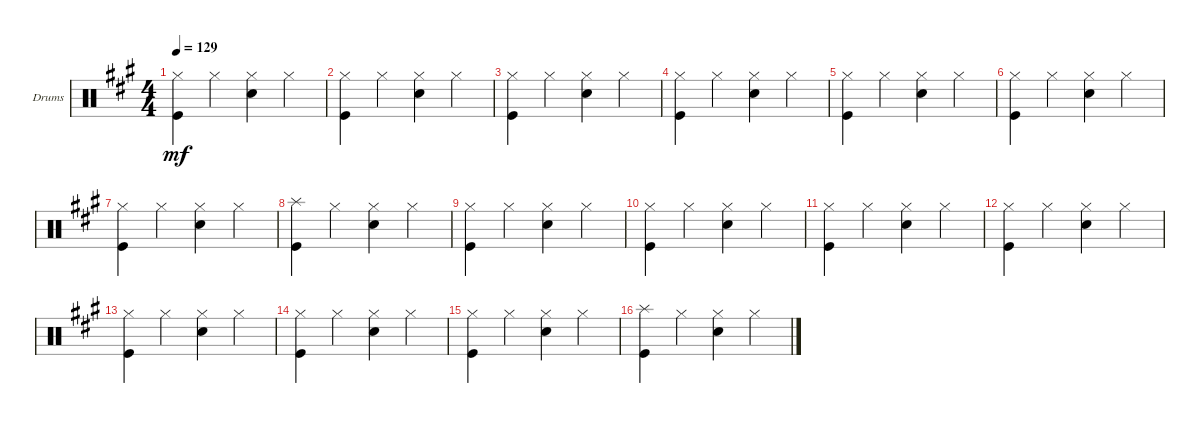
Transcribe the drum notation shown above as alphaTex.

\defaultSystemsLayout 4
\bracketExtendMode groupsimilarinstruments
\firstSystemTrackNameOrientation horizontal
\otherSystemsTrackNameOrientation horizontal
\track ("Drumkit" "Drums") {instrument percussion}
\staff {score}
\articulation defaults
\ts (4 4)
\tempo 129
\clef neutral
\ks f#minor
("Kick (hit)" "Hi-Hat (closed)").4{dy mf} "Hi-Hat (closed)".4 ("Snare (hit) 2" "Hi-Hat (closed)").4 "Hi-Hat (closed)".4 |
("Kick (hit)" "Hi-Hat (closed)").4 "Hi-Hat (closed)".4 ("Snare (hit) 2" "Hi-Hat (closed)").4 "Hi-Hat (closed)".4 |
("Kick (hit)" "Hi-Hat (closed)").4 "Hi-Hat (closed)".4 ("Snare (hit) 2" "Hi-Hat (closed)").4 "Hi-Hat (closed)".4 |
("Kick (hit)" "Hi-Hat (closed)").4 "Hi-Hat (closed)".4 ("Snare (hit) 2" "Hi-Hat (closed)").4 "Hi-Hat (closed)".4 |
("Kick (hit)" "Hi-Hat (closed)").4 "Hi-Hat (closed)".4 ("Snare (hit) 2" "Hi-Hat (closed)").4 "Hi-Hat (closed)".4 |
("Kick (hit)" "Hi-Hat (closed)").4 "Hi-Hat (closed)".4 ("Snare (hit) 2" "Hi-Hat (closed)").4 "Hi-Hat (closed)".4 |
("Kick (hit)" "Hi-Hat (closed)").4 "Hi-Hat (closed)".4 ("Snare (hit) 2" "Hi-Hat (closed)").4 "Hi-Hat (closed)".4 |
("Kick (hit)" "Splash (hit)").4 "Hi-Hat (closed)".4 ("Snare (hit) 2" "Hi-Hat (closed)").4 "Hi-Hat (closed)".4 |
("Kick (hit)" "Hi-Hat (closed)").4 "Hi-Hat (closed)".4 ("Snare (hit) 2" "Hi-Hat (closed)").4 "Hi-Hat (closed)".4 |
("Kick (hit)" "Hi-Hat (closed)").4 "Hi-Hat (closed)".4 ("Snare (hit) 2" "Hi-Hat (closed)").4 "Hi-Hat (closed)".4 |
("Kick (hit)" "Hi-Hat (closed)").4 "Hi-Hat (closed)".4 ("Snare (hit) 2" "Hi-Hat (closed)").4 "Hi-Hat (closed)".4 |
("Kick (hit)" "Hi-Hat (closed)").4 "Hi-Hat (closed)".4 ("Snare (hit) 2" "Hi-Hat (closed)").4 "Hi-Hat (closed)".4 |
("Kick (hit)" "Hi-Hat (closed)").4 "Hi-Hat (closed)".4 ("Snare (hit) 2" "Hi-Hat (closed)").4 "Hi-Hat (closed)".4 |
("Kick (hit)" "Hi-Hat (closed)").4 "Hi-Hat (closed)".4 ("Snare (hit) 2" "Hi-Hat (closed)").4 "Hi-Hat (closed)".4 |
("Kick (hit)" "Hi-Hat (closed)").4 "Hi-Hat (closed)".4 ("Snare (hit) 2" "Hi-Hat (closed)").4 "Hi-Hat (closed)".4 |
("Kick (hit)" "Splash (hit)").4 "Hi-Hat (closed)".4 ("Snare (hit) 2" "Hi-Hat (closed)").4 "Hi-Hat (closed)".4
